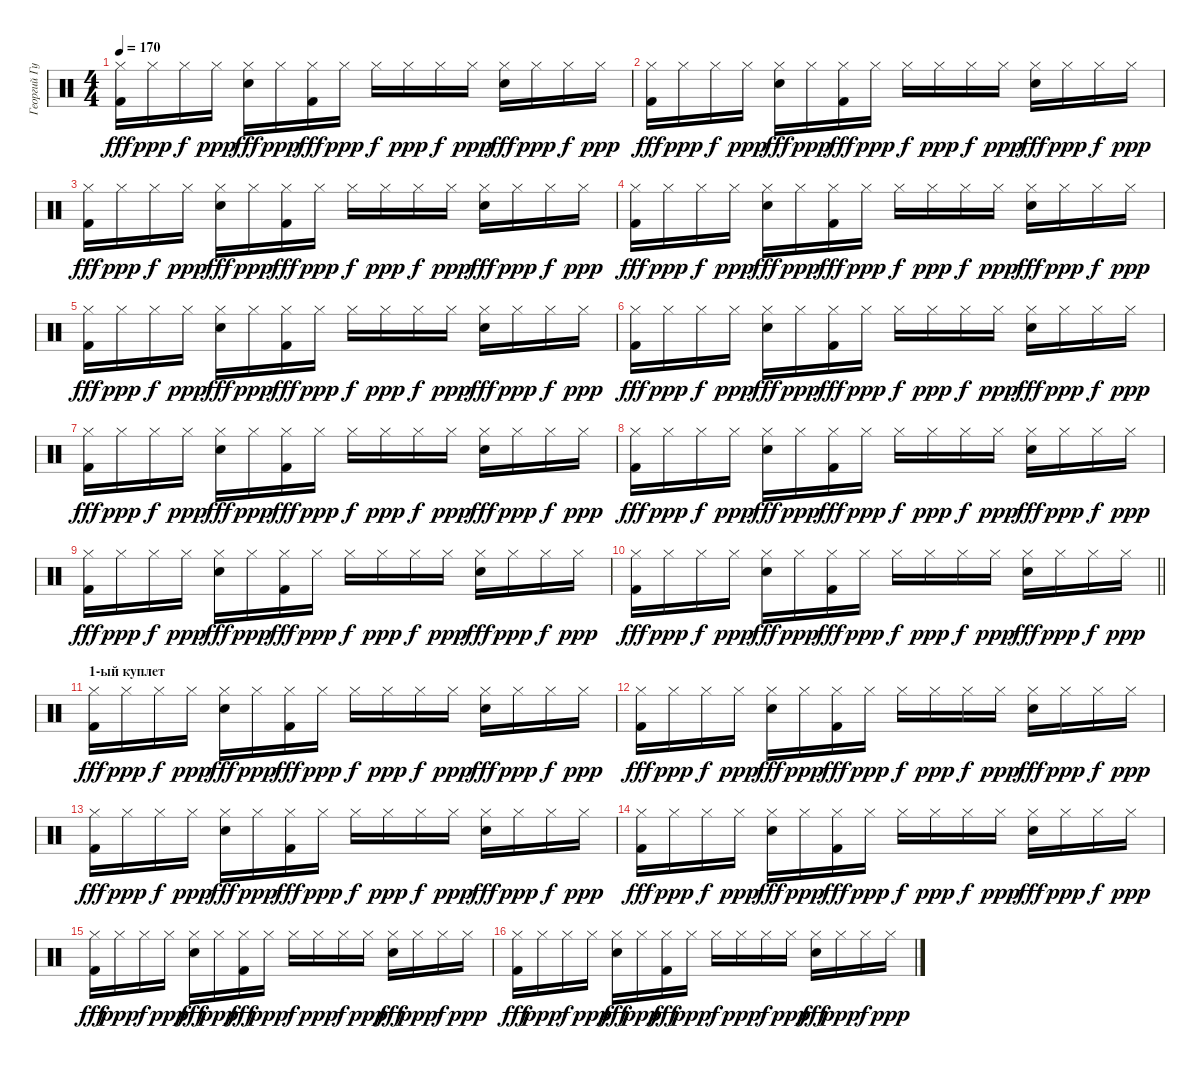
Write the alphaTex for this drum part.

\track ("Георгий Гурьянов" "Георгий Гу") {instrument percussion}
\staff {score}
\articulation defaults
\ts (4 4)
\tempo 170
\clef neutral
\ks c
("Hi-Hat (closed)" "Kick (hit) 2").16{dy fff} "Hi-Hat (closed)".16{dy ppp} "Hi-Hat (closed)".16{dy f} "Hi-Hat (closed)".16{dy ppp} ("Hi-Hat (closed)" "Electric Snare (hit)").16{dy fff} "Hi-Hat (closed)".16{dy ppp} ("Hi-Hat (closed)" "Kick (hit) 2").16{dy fff} "Hi-Hat (closed)".16{dy ppp} "Hi-Hat (closed)".16{dy f} "Hi-Hat (closed)".16{dy ppp} "Hi-Hat (closed)".16{dy f} "Hi-Hat (closed)".16{dy ppp} ("Hi-Hat (closed)" "Electric Snare (hit)").16{dy fff} "Hi-Hat (closed)".16{dy ppp} "Hi-Hat (closed)".16{dy f} "Hi-Hat (closed)".16{dy ppp} |
("Hi-Hat (closed)" "Kick (hit) 2").16{dy fff} "Hi-Hat (closed)".16{dy ppp} "Hi-Hat (closed)".16{dy f} "Hi-Hat (closed)".16{dy ppp} ("Hi-Hat (closed)" "Electric Snare (hit)").16{dy fff} "Hi-Hat (closed)".16{dy ppp} ("Hi-Hat (closed)" "Kick (hit) 2").16{dy fff} "Hi-Hat (closed)".16{dy ppp} "Hi-Hat (closed)".16{dy f} "Hi-Hat (closed)".16{dy ppp} "Hi-Hat (closed)".16{dy f} "Hi-Hat (closed)".16{dy ppp} ("Hi-Hat (closed)" "Electric Snare (hit)").16{dy fff} "Hi-Hat (closed)".16{dy ppp} "Hi-Hat (closed)".16{dy f} "Hi-Hat (closed)".16{dy ppp} |
("Hi-Hat (closed)" "Kick (hit) 2").16{dy fff} "Hi-Hat (closed)".16{dy ppp} "Hi-Hat (closed)".16{dy f} "Hi-Hat (closed)".16{dy ppp} ("Hi-Hat (closed)" "Electric Snare (hit)").16{dy fff} "Hi-Hat (closed)".16{dy ppp} ("Hi-Hat (closed)" "Kick (hit) 2").16{dy fff} "Hi-Hat (closed)".16{dy ppp} "Hi-Hat (closed)".16{dy f} "Hi-Hat (closed)".16{dy ppp} "Hi-Hat (closed)".16{dy f} "Hi-Hat (closed)".16{dy ppp} ("Hi-Hat (closed)" "Electric Snare (hit)").16{dy fff} "Hi-Hat (closed)".16{dy ppp} "Hi-Hat (closed)".16{dy f} "Hi-Hat (closed)".16{dy ppp} |
("Hi-Hat (closed)" "Kick (hit) 2").16{dy fff} "Hi-Hat (closed)".16{dy ppp} "Hi-Hat (closed)".16{dy f} "Hi-Hat (closed)".16{dy ppp} ("Hi-Hat (closed)" "Electric Snare (hit)").16{dy fff} "Hi-Hat (closed)".16{dy ppp} ("Hi-Hat (closed)" "Kick (hit) 2").16{dy fff} "Hi-Hat (closed)".16{dy ppp} "Hi-Hat (closed)".16{dy f} "Hi-Hat (closed)".16{dy ppp} "Hi-Hat (closed)".16{dy f} "Hi-Hat (closed)".16{dy ppp} ("Hi-Hat (closed)" "Electric Snare (hit)").16{dy fff} "Hi-Hat (closed)".16{dy ppp} "Hi-Hat (closed)".16{dy f} "Hi-Hat (closed)".16{dy ppp} |
("Hi-Hat (closed)" "Kick (hit) 2").16{dy fff} "Hi-Hat (closed)".16{dy ppp} "Hi-Hat (closed)".16{dy f} "Hi-Hat (closed)".16{dy ppp} ("Hi-Hat (closed)" "Electric Snare (hit)").16{dy fff} "Hi-Hat (closed)".16{dy ppp} ("Hi-Hat (closed)" "Kick (hit) 2").16{dy fff} "Hi-Hat (closed)".16{dy ppp} "Hi-Hat (closed)".16{dy f} "Hi-Hat (closed)".16{dy ppp} "Hi-Hat (closed)".16{dy f} "Hi-Hat (closed)".16{dy ppp} ("Hi-Hat (closed)" "Electric Snare (hit)").16{dy fff} "Hi-Hat (closed)".16{dy ppp} "Hi-Hat (closed)".16{dy f} "Hi-Hat (closed)".16{dy ppp} |
("Hi-Hat (closed)" "Kick (hit) 2").16{dy fff} "Hi-Hat (closed)".16{dy ppp} "Hi-Hat (closed)".16{dy f} "Hi-Hat (closed)".16{dy ppp} ("Hi-Hat (closed)" "Electric Snare (hit)").16{dy fff} "Hi-Hat (closed)".16{dy ppp} ("Hi-Hat (closed)" "Kick (hit) 2").16{dy fff} "Hi-Hat (closed)".16{dy ppp} "Hi-Hat (closed)".16{dy f} "Hi-Hat (closed)".16{dy ppp} "Hi-Hat (closed)".16{dy f} "Hi-Hat (closed)".16{dy ppp} ("Hi-Hat (closed)" "Electric Snare (hit)").16{dy fff} "Hi-Hat (closed)".16{dy ppp} "Hi-Hat (closed)".16{dy f} "Hi-Hat (closed)".16{dy ppp} |
("Hi-Hat (closed)" "Kick (hit) 2").16{dy fff} "Hi-Hat (closed)".16{dy ppp} "Hi-Hat (closed)".16{dy f} "Hi-Hat (closed)".16{dy ppp} ("Hi-Hat (closed)" "Electric Snare (hit)").16{dy fff} "Hi-Hat (closed)".16{dy ppp} ("Hi-Hat (closed)" "Kick (hit) 2").16{dy fff} "Hi-Hat (closed)".16{dy ppp} "Hi-Hat (closed)".16{dy f} "Hi-Hat (closed)".16{dy ppp} "Hi-Hat (closed)".16{dy f} "Hi-Hat (closed)".16{dy ppp} ("Hi-Hat (closed)" "Electric Snare (hit)").16{dy fff} "Hi-Hat (closed)".16{dy ppp} "Hi-Hat (closed)".16{dy f} "Hi-Hat (closed)".16{dy ppp} |
("Hi-Hat (closed)" "Kick (hit) 2").16{dy fff} "Hi-Hat (closed)".16{dy ppp} "Hi-Hat (closed)".16{dy f} "Hi-Hat (closed)".16{dy ppp} ("Hi-Hat (closed)" "Electric Snare (hit)").16{dy fff} "Hi-Hat (closed)".16{dy ppp} ("Hi-Hat (closed)" "Kick (hit) 2").16{dy fff} "Hi-Hat (closed)".16{dy ppp} "Hi-Hat (closed)".16{dy f} "Hi-Hat (closed)".16{dy ppp} "Hi-Hat (closed)".16{dy f} "Hi-Hat (closed)".16{dy ppp} ("Hi-Hat (closed)" "Electric Snare (hit)").16{dy fff} "Hi-Hat (closed)".16{dy ppp} "Hi-Hat (closed)".16{dy f} "Hi-Hat (closed)".16{dy ppp} |
("Hi-Hat (closed)" "Kick (hit) 2").16{dy fff} "Hi-Hat (closed)".16{dy ppp} "Hi-Hat (closed)".16{dy f} "Hi-Hat (closed)".16{dy ppp} ("Hi-Hat (closed)" "Electric Snare (hit)").16{dy fff} "Hi-Hat (closed)".16{dy ppp} ("Hi-Hat (closed)" "Kick (hit) 2").16{dy fff} "Hi-Hat (closed)".16{dy ppp} "Hi-Hat (closed)".16{dy f} "Hi-Hat (closed)".16{dy ppp} "Hi-Hat (closed)".16{dy f} "Hi-Hat (closed)".16{dy ppp} ("Hi-Hat (closed)" "Electric Snare (hit)").16{dy fff} "Hi-Hat (closed)".16{dy ppp} "Hi-Hat (closed)".16{dy f} "Hi-Hat (closed)".16{dy ppp} |
\barLineRight lightlight
("Hi-Hat (closed)" "Kick (hit) 2").16{dy fff} "Hi-Hat (closed)".16{dy ppp} "Hi-Hat (closed)".16{dy f} "Hi-Hat (closed)".16{dy ppp} ("Hi-Hat (closed)" "Electric Snare (hit)").16{dy fff} "Hi-Hat (closed)".16{dy ppp} ("Hi-Hat (closed)" "Kick (hit) 2").16{dy fff} "Hi-Hat (closed)".16{dy ppp} "Hi-Hat (closed)".16{dy f} "Hi-Hat (closed)".16{dy ppp} "Hi-Hat (closed)".16{dy f} "Hi-Hat (closed)".16{dy ppp} ("Hi-Hat (closed)" "Electric Snare (hit)").16{dy fff} "Hi-Hat (closed)".16{dy ppp} "Hi-Hat (closed)".16{dy f} "Hi-Hat (closed)".16{dy ppp} |
\section ("" "1-ый куплет")
("Hi-Hat (closed)" "Kick (hit) 2").16{dy fff} "Hi-Hat (closed)".16{dy ppp} "Hi-Hat (closed)".16{dy f} "Hi-Hat (closed)".16{dy ppp} ("Hi-Hat (closed)" "Electric Snare (hit)").16{dy fff} "Hi-Hat (closed)".16{dy ppp} ("Hi-Hat (closed)" "Kick (hit) 2").16{dy fff} "Hi-Hat (closed)".16{dy ppp} "Hi-Hat (closed)".16{dy f} "Hi-Hat (closed)".16{dy ppp} "Hi-Hat (closed)".16{dy f} "Hi-Hat (closed)".16{dy ppp} ("Hi-Hat (closed)" "Electric Snare (hit)").16{dy fff} "Hi-Hat (closed)".16{dy ppp} "Hi-Hat (closed)".16{dy f} "Hi-Hat (closed)".16{dy ppp} |
("Hi-Hat (closed)" "Kick (hit) 2").16{dy fff} "Hi-Hat (closed)".16{dy ppp} "Hi-Hat (closed)".16{dy f} "Hi-Hat (closed)".16{dy ppp} ("Hi-Hat (closed)" "Electric Snare (hit)").16{dy fff} "Hi-Hat (closed)".16{dy ppp} ("Hi-Hat (closed)" "Kick (hit) 2").16{dy fff} "Hi-Hat (closed)".16{dy ppp} "Hi-Hat (closed)".16{dy f} "Hi-Hat (closed)".16{dy ppp} "Hi-Hat (closed)".16{dy f} "Hi-Hat (closed)".16{dy ppp} ("Hi-Hat (closed)" "Electric Snare (hit)").16{dy fff} "Hi-Hat (closed)".16{dy ppp} "Hi-Hat (closed)".16{dy f} "Hi-Hat (closed)".16{dy ppp} |
("Hi-Hat (closed)" "Kick (hit) 2").16{dy fff} "Hi-Hat (closed)".16{dy ppp} "Hi-Hat (closed)".16{dy f} "Hi-Hat (closed)".16{dy ppp} ("Hi-Hat (closed)" "Electric Snare (hit)").16{dy fff} "Hi-Hat (closed)".16{dy ppp} ("Hi-Hat (closed)" "Kick (hit) 2").16{dy fff} "Hi-Hat (closed)".16{dy ppp} "Hi-Hat (closed)".16{dy f} "Hi-Hat (closed)".16{dy ppp} "Hi-Hat (closed)".16{dy f} "Hi-Hat (closed)".16{dy ppp} ("Hi-Hat (closed)" "Electric Snare (hit)").16{dy fff} "Hi-Hat (closed)".16{dy ppp} "Hi-Hat (closed)".16{dy f} "Hi-Hat (closed)".16{dy ppp} |
("Hi-Hat (closed)" "Kick (hit) 2").16{dy fff} "Hi-Hat (closed)".16{dy ppp} "Hi-Hat (closed)".16{dy f} "Hi-Hat (closed)".16{dy ppp} ("Hi-Hat (closed)" "Electric Snare (hit)").16{dy fff} "Hi-Hat (closed)".16{dy ppp} ("Hi-Hat (closed)" "Kick (hit) 2").16{dy fff} "Hi-Hat (closed)".16{dy ppp} "Hi-Hat (closed)".16{dy f} "Hi-Hat (closed)".16{dy ppp} "Hi-Hat (closed)".16{dy f} "Hi-Hat (closed)".16{dy ppp} ("Hi-Hat (closed)" "Electric Snare (hit)").16{dy fff} "Hi-Hat (closed)".16{dy ppp} "Hi-Hat (closed)".16{dy f} "Hi-Hat (closed)".16{dy ppp} |
("Hi-Hat (closed)" "Kick (hit) 2").16{dy fff} "Hi-Hat (closed)".16{dy ppp} "Hi-Hat (closed)".16{dy f} "Hi-Hat (closed)".16{dy ppp} ("Hi-Hat (closed)" "Electric Snare (hit)").16{dy fff} "Hi-Hat (closed)".16{dy ppp} ("Hi-Hat (closed)" "Kick (hit) 2").16{dy fff} "Hi-Hat (closed)".16{dy ppp} "Hi-Hat (closed)".16{dy f} "Hi-Hat (closed)".16{dy ppp} "Hi-Hat (closed)".16{dy f} "Hi-Hat (closed)".16{dy ppp} ("Hi-Hat (closed)" "Electric Snare (hit)").16{dy fff} "Hi-Hat (closed)".16{dy ppp} "Hi-Hat (closed)".16{dy f} "Hi-Hat (closed)".16{dy ppp} |
("Hi-Hat (closed)" "Kick (hit) 2").16{dy fff} "Hi-Hat (closed)".16{dy ppp} "Hi-Hat (closed)".16{dy f} "Hi-Hat (closed)".16{dy ppp} ("Hi-Hat (closed)" "Electric Snare (hit)").16{dy fff} "Hi-Hat (closed)".16{dy ppp} ("Hi-Hat (closed)" "Kick (hit) 2").16{dy fff} "Hi-Hat (closed)".16{dy ppp} "Hi-Hat (closed)".16{dy f} "Hi-Hat (closed)".16{dy ppp} "Hi-Hat (closed)".16{dy f} "Hi-Hat (closed)".16{dy ppp} ("Hi-Hat (closed)" "Electric Snare (hit)").16{dy fff} "Hi-Hat (closed)".16{dy ppp} "Hi-Hat (closed)".16{dy f} "Hi-Hat (closed)".16{dy ppp}
